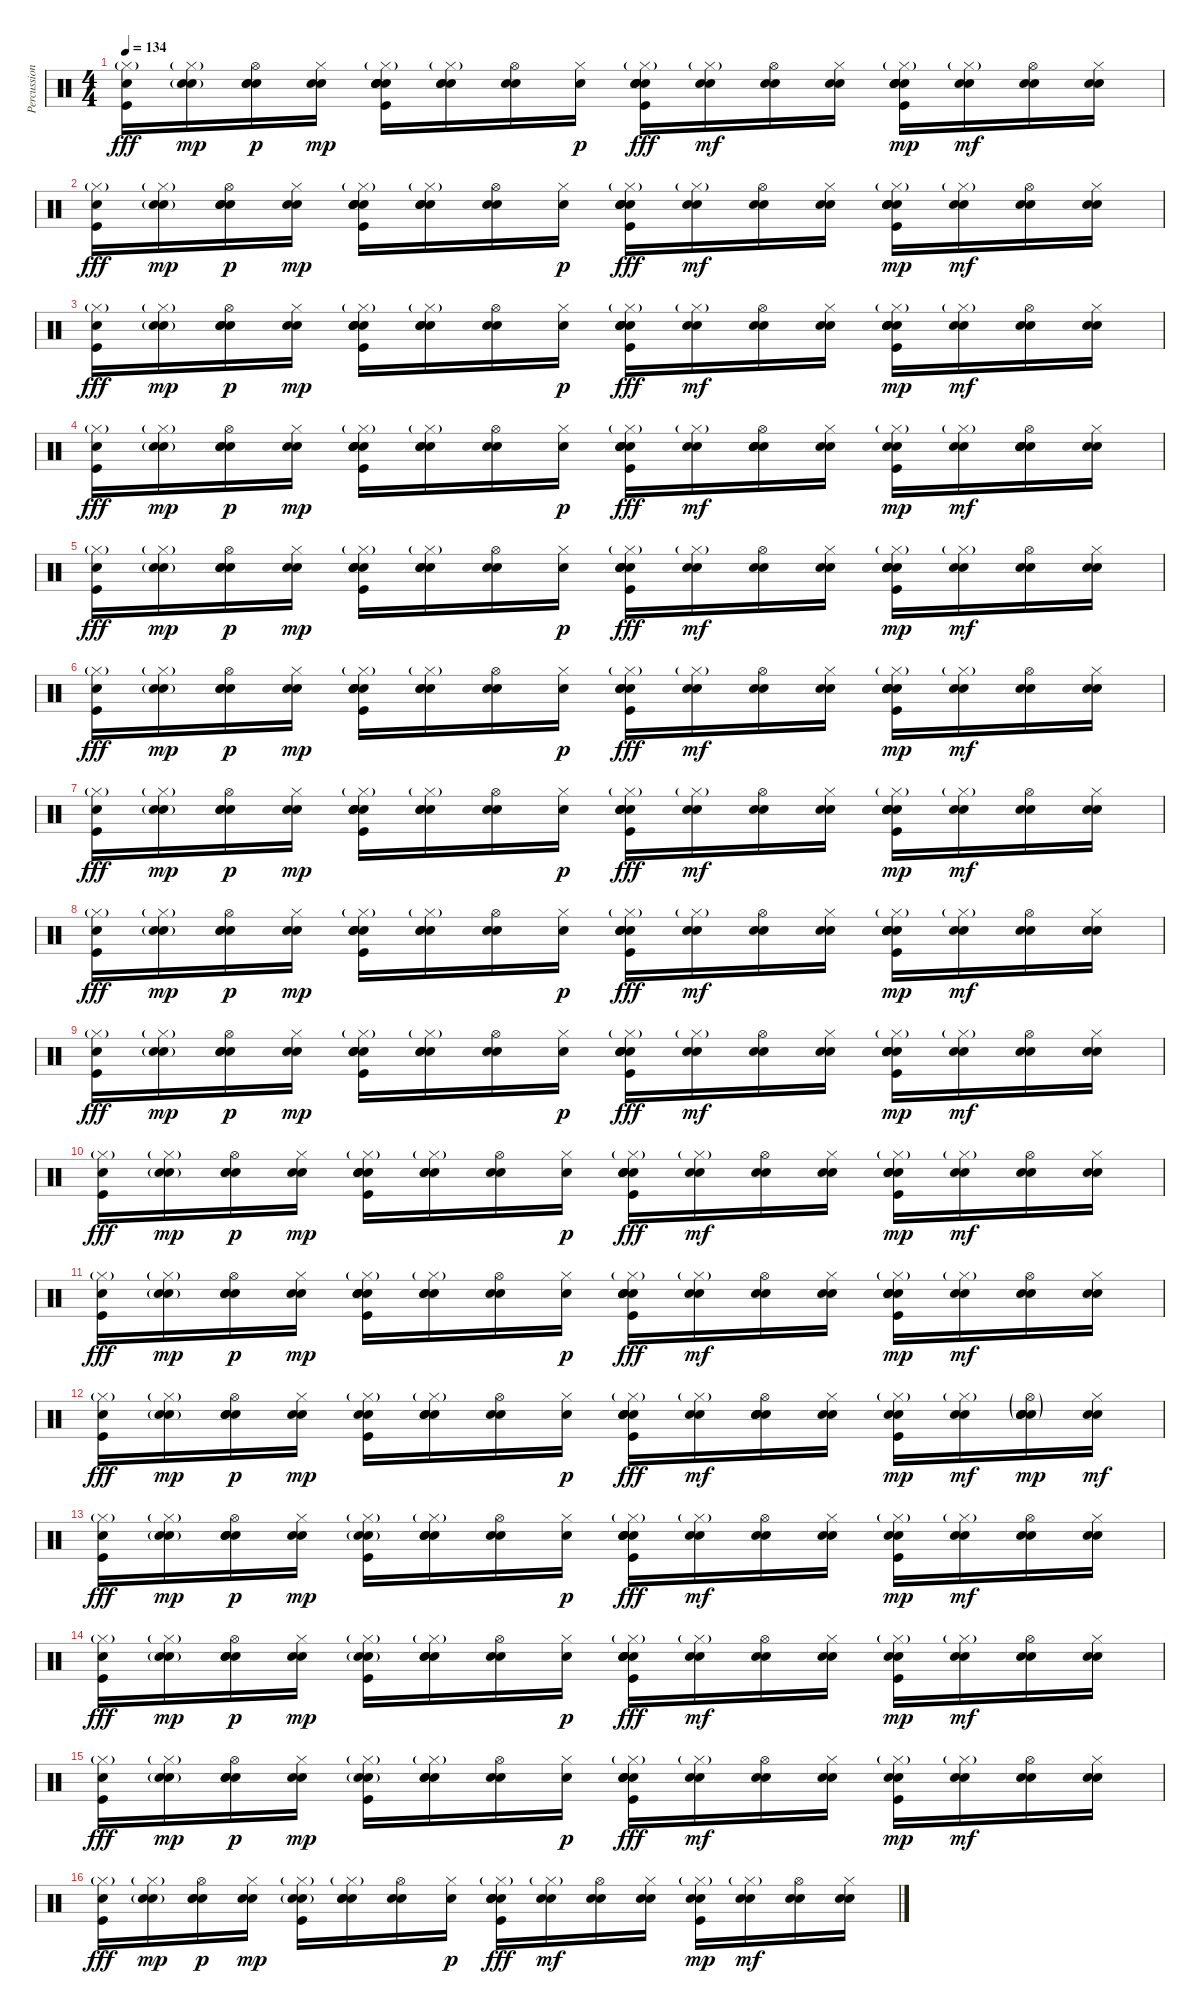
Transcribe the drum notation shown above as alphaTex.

\track ("Percussion" "Percussion") {instrument percussion}
\staff {score}
\articulation defaults
\ts (4 4)
\tempo 134
\clef neutral
\ks c
("Electric Snare (hit)" "Hi-Hat (closed)"{g} "Kick (hit)").16{dy fff} ("Electric Snare (hit)" "Hi-Hat (closed)"{g} "Electric Snare (hit)"{g}).16{dy mp} ("Electric Snare (hit)" "Hi-Hat (open)" "Electric Snare (hit)" "Snare (hit) 2").16{dy p} ("Electric Snare (hit)" "Hi-Hat (closed)" "Snare (hit) 2").16{dy mp} ("Electric Snare (hit)" "Hi-Hat (closed)"{g} "Hand Clap (hit)" "Hand Clap (hit)" "Hand Clap (hit)" "Kick (hit)").16 ("Electric Snare (hit)" "Hi-Hat (closed)"{g} "Electric Snare (hit)" "Snare (hit) 2").16 ("Electric Snare (hit)" "Hi-Hat (open)" "Snare (hit) 2").16 ("Electric Snare (hit)" "Hi-Hat (closed)").16{dy p} ("Electric Snare (hit)" "Hi-Hat (closed)"{g} "Snare (hit) 2" "Snare (hit) 2" "Snare (hit) 2" "Kick (hit)").16{dy fff} ("Electric Snare (hit)" "Hi-Hat (closed)"{g} "Snare (hit) 2").16{dy mf} ("Electric Snare (hit)" "Hi-Hat (open)" "Snare (hit) 2").16 ("Electric Snare (hit)" "Hi-Hat (closed)" "Snare (hit) 2").16 ("Electric Snare (hit)" "Hi-Hat (closed)"{g} "Hand Clap (hit)" "Hand Clap (hit)" "Hand Clap (hit)" "Kick (hit)").16{dy mp} ("Electric Snare (hit)" "Hi-Hat (closed)"{g} "Snare (hit) 2").16{dy mf} ("Electric Snare (hit)" "Hi-Hat (open)" "Snare (hit) 2").16 ("Electric Snare (hit)" "Hi-Hat (closed)" "Snare (hit) 2").16 |
("Electric Snare (hit)" "Hi-Hat (closed)"{g} "Kick (hit)").16{dy fff} ("Electric Snare (hit)" "Hi-Hat (closed)"{g} "Electric Snare (hit)"{g}).16{dy mp} ("Electric Snare (hit)" "Hi-Hat (open)" "Electric Snare (hit)" "Snare (hit) 2").16{dy p} ("Electric Snare (hit)" "Hi-Hat (closed)" "Snare (hit) 2").16{dy mp} ("Electric Snare (hit)" "Hi-Hat (closed)"{g} "Hand Clap (hit)" "Hand Clap (hit)" "Hand Clap (hit)" "Kick (hit)").16 ("Electric Snare (hit)" "Hi-Hat (closed)"{g} "Electric Snare (hit)" "Snare (hit) 2").16 ("Electric Snare (hit)" "Hi-Hat (open)" "Snare (hit) 2").16 ("Electric Snare (hit)" "Hi-Hat (closed)").16{dy p} ("Electric Snare (hit)" "Hi-Hat (closed)"{g} "Snare (hit) 2" "Snare (hit) 2" "Snare (hit) 2" "Kick (hit)").16{dy fff} ("Electric Snare (hit)" "Hi-Hat (closed)"{g} "Snare (hit) 2").16{dy mf} ("Electric Snare (hit)" "Hi-Hat (open)" "Snare (hit) 2").16 ("Electric Snare (hit)" "Hi-Hat (closed)" "Snare (hit) 2").16 ("Electric Snare (hit)" "Hi-Hat (closed)"{g} "Hand Clap (hit)" "Hand Clap (hit)" "Hand Clap (hit)" "Kick (hit)").16{dy mp} ("Electric Snare (hit)" "Hi-Hat (closed)"{g} "Snare (hit) 2").16{dy mf} ("Electric Snare (hit)" "Hi-Hat (open)" "Snare (hit) 2").16 ("Electric Snare (hit)" "Hi-Hat (closed)" "Snare (hit) 2").16 |
("Electric Snare (hit)" "Hi-Hat (closed)"{g} "Kick (hit)").16{dy fff} ("Electric Snare (hit)" "Hi-Hat (closed)"{g} "Electric Snare (hit)"{g}).16{dy mp} ("Electric Snare (hit)" "Hi-Hat (open)" "Electric Snare (hit)" "Snare (hit) 2").16{dy p} ("Electric Snare (hit)" "Hi-Hat (closed)" "Snare (hit) 2").16{dy mp} ("Electric Snare (hit)" "Hi-Hat (closed)"{g} "Hand Clap (hit)" "Hand Clap (hit)" "Hand Clap (hit)" "Kick (hit)").16 ("Electric Snare (hit)" "Hi-Hat (closed)"{g} "Electric Snare (hit)" "Snare (hit) 2").16 ("Electric Snare (hit)" "Hi-Hat (open)" "Snare (hit) 2").16 ("Electric Snare (hit)" "Hi-Hat (closed)").16{dy p} ("Electric Snare (hit)" "Hi-Hat (closed)"{g} "Snare (hit) 2" "Snare (hit) 2" "Snare (hit) 2" "Kick (hit)").16{dy fff} ("Electric Snare (hit)" "Hi-Hat (closed)"{g} "Snare (hit) 2").16{dy mf} ("Electric Snare (hit)" "Hi-Hat (open)" "Snare (hit) 2").16 ("Electric Snare (hit)" "Hi-Hat (closed)" "Snare (hit) 2").16 ("Electric Snare (hit)" "Hi-Hat (closed)"{g} "Hand Clap (hit)" "Hand Clap (hit)" "Hand Clap (hit)" "Kick (hit)").16{dy mp} ("Electric Snare (hit)" "Hi-Hat (closed)"{g} "Snare (hit) 2").16{dy mf} ("Electric Snare (hit)" "Hi-Hat (open)" "Snare (hit) 2").16 ("Electric Snare (hit)" "Hi-Hat (closed)" "Snare (hit) 2").16 |
("Electric Snare (hit)" "Hi-Hat (closed)"{g} "Kick (hit)").16{dy fff} ("Electric Snare (hit)" "Hi-Hat (closed)"{g} "Electric Snare (hit)"{g}).16{dy mp} ("Electric Snare (hit)" "Hi-Hat (open)" "Electric Snare (hit)" "Snare (hit) 2").16{dy p} ("Electric Snare (hit)" "Hi-Hat (closed)" "Snare (hit) 2").16{dy mp} ("Electric Snare (hit)" "Hi-Hat (closed)"{g} "Hand Clap (hit)" "Hand Clap (hit)" "Hand Clap (hit)" "Kick (hit)").16 ("Electric Snare (hit)" "Hi-Hat (closed)"{g} "Electric Snare (hit)" "Snare (hit) 2").16 ("Electric Snare (hit)" "Hi-Hat (open)" "Snare (hit) 2").16 ("Electric Snare (hit)" "Hi-Hat (closed)").16{dy p} ("Electric Snare (hit)" "Hi-Hat (closed)"{g} "Snare (hit) 2" "Snare (hit) 2" "Snare (hit) 2" "Kick (hit)").16{dy fff} ("Electric Snare (hit)" "Hi-Hat (closed)"{g} "Snare (hit) 2").16{dy mf} ("Electric Snare (hit)" "Hi-Hat (open)" "Hand Clap (hit)" "Hand Clap (hit)" "Hand Clap (hit)").16 ("Electric Snare (hit)" "Hi-Hat (closed)" "Snare (hit) 2").16 ("Electric Snare (hit)" "Hi-Hat (closed)"{g} "Snare (hit) 2" "Kick (hit)").16{dy mp} ("Electric Snare (hit)" "Hi-Hat (closed)"{g} "Snare (hit) 2").16{dy mf} ("Electric Snare (hit)" "Hi-Hat (open)" "Hand Clap (hit)" "Hand Clap (hit)" "Hand Clap (hit)").16 ("Electric Snare (hit)" "Hi-Hat (closed)" "Snare (hit) 2").16 |
("Electric Snare (hit)" "Hi-Hat (closed)"{g} "Kick (hit)").16{dy fff} ("Electric Snare (hit)" "Hi-Hat (closed)"{g} "Electric Snare (hit)"{g}).16{dy mp} ("Electric Snare (hit)" "Hi-Hat (open)" "Electric Snare (hit)" "Snare (hit) 2").16{dy p} ("Electric Snare (hit)" "Hi-Hat (closed)" "Snare (hit) 2").16{dy mp} ("Electric Snare (hit)" "Hi-Hat (closed)"{g} "Hand Clap (hit)" "Hand Clap (hit)" "Hand Clap (hit)" "Kick (hit)").16 ("Electric Snare (hit)" "Hi-Hat (closed)"{g} "Electric Snare (hit)" "Snare (hit) 2").16 ("Electric Snare (hit)" "Hi-Hat (open)" "Snare (hit) 2").16 ("Electric Snare (hit)" "Hi-Hat (closed)").16{dy p} ("Electric Snare (hit)" "Hi-Hat (closed)"{g} "Snare (hit) 2" "Snare (hit) 2" "Snare (hit) 2" "Kick (hit)").16{dy fff} ("Electric Snare (hit)" "Hi-Hat (closed)"{g} "Snare (hit) 2").16{dy mf} ("Electric Snare (hit)" "Hi-Hat (open)" "Snare (hit) 2").16 ("Electric Snare (hit)" "Hi-Hat (closed)" "Snare (hit) 2").16 ("Electric Snare (hit)" "Hi-Hat (closed)"{g} "Hand Clap (hit)" "Hand Clap (hit)" "Hand Clap (hit)" "Kick (hit)").16{dy mp} ("Electric Snare (hit)" "Hi-Hat (closed)"{g} "Snare (hit) 2").16{dy mf} ("Electric Snare (hit)" "Hi-Hat (open)" "Snare (hit) 2").16 ("Electric Snare (hit)" "Hi-Hat (closed)" "Snare (hit) 2").16 |
("Electric Snare (hit)" "Hi-Hat (closed)"{g} "Kick (hit)").16{dy fff} ("Electric Snare (hit)" "Hi-Hat (closed)"{g} "Electric Snare (hit)"{g}).16{dy mp} ("Electric Snare (hit)" "Hi-Hat (open)" "Electric Snare (hit)" "Snare (hit) 2").16{dy p} ("Electric Snare (hit)" "Hi-Hat (closed)" "Snare (hit) 2").16{dy mp} ("Electric Snare (hit)" "Hi-Hat (closed)"{g} "Hand Clap (hit)" "Hand Clap (hit)" "Hand Clap (hit)" "Kick (hit)").16 ("Electric Snare (hit)" "Hi-Hat (closed)"{g} "Electric Snare (hit)" "Snare (hit) 2").16 ("Electric Snare (hit)" "Hi-Hat (open)" "Snare (hit) 2").16 ("Electric Snare (hit)" "Hi-Hat (closed)").16{dy p} ("Electric Snare (hit)" "Hi-Hat (closed)"{g} "Snare (hit) 2" "Snare (hit) 2" "Snare (hit) 2" "Kick (hit)").16{dy fff} ("Electric Snare (hit)" "Hi-Hat (closed)"{g} "Snare (hit) 2").16{dy mf} ("Electric Snare (hit)" "Hi-Hat (open)" "Snare (hit) 2").16 ("Electric Snare (hit)" "Hi-Hat (closed)" "Snare (hit) 2").16 ("Electric Snare (hit)" "Hi-Hat (closed)"{g} "Hand Clap (hit)" "Hand Clap (hit)" "Hand Clap (hit)" "Kick (hit)").16{dy mp} ("Electric Snare (hit)" "Hi-Hat (closed)"{g} "Snare (hit) 2").16{dy mf} ("Electric Snare (hit)" "Hi-Hat (open)" "Snare (hit) 2").16 ("Electric Snare (hit)" "Hi-Hat (closed)" "Snare (hit) 2").16 |
("Electric Snare (hit)" "Hi-Hat (closed)"{g} "Kick (hit)").16{dy fff} ("Electric Snare (hit)" "Hi-Hat (closed)"{g} "Electric Snare (hit)"{g}).16{dy mp} ("Electric Snare (hit)" "Hi-Hat (open)" "Electric Snare (hit)" "Snare (hit) 2").16{dy p} ("Electric Snare (hit)" "Hi-Hat (closed)" "Snare (hit) 2").16{dy mp} ("Electric Snare (hit)" "Hi-Hat (closed)"{g} "Hand Clap (hit)" "Hand Clap (hit)" "Hand Clap (hit)" "Kick (hit)").16 ("Electric Snare (hit)" "Hi-Hat (closed)"{g} "Electric Snare (hit)" "Snare (hit) 2").16 ("Electric Snare (hit)" "Hi-Hat (open)" "Snare (hit) 2").16 ("Electric Snare (hit)" "Hi-Hat (closed)").16{dy p} ("Electric Snare (hit)" "Hi-Hat (closed)"{g} "Snare (hit) 2" "Snare (hit) 2" "Snare (hit) 2" "Kick (hit)").16{dy fff} ("Electric Snare (hit)" "Hi-Hat (closed)"{g} "Snare (hit) 2").16{dy mf} ("Electric Snare (hit)" "Hi-Hat (open)" "Snare (hit) 2").16 ("Electric Snare (hit)" "Hi-Hat (closed)" "Snare (hit) 2").16 ("Electric Snare (hit)" "Hi-Hat (closed)"{g} "Hand Clap (hit)" "Hand Clap (hit)" "Hand Clap (hit)" "Kick (hit)").16{dy mp} ("Electric Snare (hit)" "Hi-Hat (closed)"{g} "Snare (hit) 2").16{dy mf} ("Electric Snare (hit)" "Hi-Hat (open)" "Snare (hit) 2").16 ("Electric Snare (hit)" "Hi-Hat (closed)" "Snare (hit) 2").16 |
("Electric Snare (hit)" "Hi-Hat (closed)"{g} "Kick (hit)").16{dy fff} ("Electric Snare (hit)" "Hi-Hat (closed)"{g} "Electric Snare (hit)"{g}).16{dy mp} ("Electric Snare (hit)" "Hi-Hat (open)" "Electric Snare (hit)" "Snare (hit) 2").16{dy p} ("Electric Snare (hit)" "Hi-Hat (closed)" "Snare (hit) 2").16{dy mp} ("Electric Snare (hit)" "Hi-Hat (closed)"{g} "Hand Clap (hit)" "Hand Clap (hit)" "Hand Clap (hit)" "Kick (hit)").16 ("Electric Snare (hit)" "Hi-Hat (closed)"{g} "Electric Snare (hit)" "Snare (hit) 2").16 ("Electric Snare (hit)" "Hi-Hat (open)" "Snare (hit) 2").16 ("Electric Snare (hit)" "Hi-Hat (closed)").16{dy p} ("Electric Snare (hit)" "Hi-Hat (closed)"{g} "Snare (hit) 2" "Snare (hit) 2" "Snare (hit) 2" "Kick (hit)").16{dy fff} ("Electric Snare (hit)" "Hi-Hat (closed)"{g} "Snare (hit) 2").16{dy mf} ("Electric Snare (hit)" "Hi-Hat (open)" "Snare (hit) 2").16 ("Electric Snare (hit)" "Hi-Hat (closed)" "Snare (hit) 2").16 ("Electric Snare (hit)" "Hi-Hat (closed)"{g} "Hand Clap (hit)" "Hand Clap (hit)" "Hand Clap (hit)" "Kick (hit)").16{dy mp} ("Electric Snare (hit)" "Hi-Hat (closed)"{g} "Snare (hit) 2").16{dy mf} ("Electric Snare (hit)" "Hi-Hat (open)" "Snare (hit) 2").16 ("Electric Snare (hit)" "Hi-Hat (closed)" "Snare (hit) 2").16 |
("Electric Snare (hit)" "Hi-Hat (closed)"{g} "Kick (hit)").16{dy fff} ("Electric Snare (hit)" "Hi-Hat (closed)"{g} "Electric Snare (hit)"{g}).16{dy mp} ("Electric Snare (hit)" "Hi-Hat (open)" "Electric Snare (hit)" "Snare (hit) 2").16{dy p} ("Electric Snare (hit)" "Hi-Hat (closed)" "Snare (hit) 2").16{dy mp} ("Electric Snare (hit)" "Hi-Hat (closed)"{g} "Hand Clap (hit)" "Hand Clap (hit)" "Hand Clap (hit)" "Kick (hit)").16 ("Electric Snare (hit)" "Hi-Hat (closed)"{g} "Electric Snare (hit)" "Snare (hit) 2").16 ("Electric Snare (hit)" "Hi-Hat (open)" "Snare (hit) 2").16 ("Electric Snare (hit)" "Hi-Hat (closed)").16{dy p} ("Electric Snare (hit)" "Hi-Hat (closed)"{g} "Snare (hit) 2" "Snare (hit) 2" "Snare (hit) 2" "Kick (hit)").16{dy fff} ("Electric Snare (hit)" "Hi-Hat (closed)"{g} "Snare (hit) 2").16{dy mf} ("Electric Snare (hit)" "Hi-Hat (open)" "Snare (hit) 2").16 ("Electric Snare (hit)" "Hi-Hat (closed)" "Snare (hit) 2").16 ("Electric Snare (hit)" "Hi-Hat (closed)"{g} "Hand Clap (hit)" "Hand Clap (hit)" "Hand Clap (hit)" "Kick (hit)").16{dy mp} ("Electric Snare (hit)" "Hi-Hat (closed)"{g} "Snare (hit) 2").16{dy mf} ("Electric Snare (hit)" "Hi-Hat (open)" "Snare (hit) 2").16 ("Electric Snare (hit)" "Hi-Hat (closed)" "Snare (hit) 2").16 |
("Electric Snare (hit)" "Hi-Hat (closed)"{g} "Kick (hit)").16{dy fff} ("Electric Snare (hit)" "Hi-Hat (closed)"{g} "Electric Snare (hit)"{g}).16{dy mp} ("Electric Snare (hit)" "Hi-Hat (open)" "Electric Snare (hit)" "Snare (hit) 2").16{dy p} ("Electric Snare (hit)" "Hi-Hat (closed)" "Snare (hit) 2").16{dy mp} ("Electric Snare (hit)" "Hi-Hat (closed)"{g} "Hand Clap (hit)" "Hand Clap (hit)" "Hand Clap (hit)" "Kick (hit)").16 ("Electric Snare (hit)" "Hi-Hat (closed)"{g} "Electric Snare (hit)" "Snare (hit) 2").16 ("Electric Snare (hit)" "Hi-Hat (open)" "Snare (hit) 2").16 ("Electric Snare (hit)" "Hi-Hat (closed)").16{dy p} ("Electric Snare (hit)" "Hi-Hat (closed)"{g} "Snare (hit) 2" "Snare (hit) 2" "Snare (hit) 2" "Kick (hit)").16{dy fff} ("Electric Snare (hit)" "Hi-Hat (closed)"{g} "Snare (hit) 2").16{dy mf} ("Electric Snare (hit)" "Hi-Hat (open)" "Snare (hit) 2").16 ("Electric Snare (hit)" "Hi-Hat (closed)" "Snare (hit) 2").16 ("Electric Snare (hit)" "Hi-Hat (closed)"{g} "Hand Clap (hit)" "Hand Clap (hit)" "Hand Clap (hit)" "Kick (hit)").16{dy mp} ("Electric Snare (hit)" "Hi-Hat (closed)"{g} "Snare (hit) 2").16{dy mf} ("Electric Snare (hit)" "Hi-Hat (open)" "Snare (hit) 2").16 ("Electric Snare (hit)" "Hi-Hat (closed)" "Snare (hit) 2").16 |
("Electric Snare (hit)" "Hi-Hat (closed)"{g} "Kick (hit)").16{dy fff} ("Electric Snare (hit)" "Hi-Hat (closed)"{g} "Electric Snare (hit)"{g}).16{dy mp} ("Electric Snare (hit)" "Hi-Hat (open)" "Electric Snare (hit)" "Snare (hit) 2").16{dy p} ("Electric Snare (hit)" "Hi-Hat (closed)" "Snare (hit) 2").16{dy mp} ("Electric Snare (hit)" "Hi-Hat (closed)"{g} "Hand Clap (hit)" "Hand Clap (hit)" "Hand Clap (hit)" "Kick (hit)").16 ("Electric Snare (hit)" "Hi-Hat (closed)"{g} "Electric Snare (hit)" "Snare (hit) 2").16 ("Electric Snare (hit)" "Hi-Hat (open)" "Snare (hit) 2").16 ("Electric Snare (hit)" "Hi-Hat (closed)").16{dy p} ("Electric Snare (hit)" "Hi-Hat (closed)"{g} "Snare (hit) 2" "Snare (hit) 2" "Snare (hit) 2" "Kick (hit)").16{dy fff} ("Electric Snare (hit)" "Hi-Hat (closed)"{g} "Snare (hit) 2").16{dy mf} ("Electric Snare (hit)" "Hi-Hat (open)" "Snare (hit) 2").16 ("Electric Snare (hit)" "Hi-Hat (closed)" "Snare (hit) 2").16 ("Electric Snare (hit)" "Hi-Hat (closed)"{g} "Hand Clap (hit)" "Hand Clap (hit)" "Hand Clap (hit)" "Kick (hit)").16{dy mp} ("Electric Snare (hit)" "Hi-Hat (closed)"{g} "Snare (hit) 2").16{dy mf} ("Electric Snare (hit)" "Hi-Hat (open)" "Snare (hit) 2").16 ("Electric Snare (hit)" "Hi-Hat (closed)" "Snare (hit) 2").16 |
("Electric Snare (hit)" "Hi-Hat (closed)"{g} "Kick (hit)").16{dy fff} ("Electric Snare (hit)" "Hi-Hat (closed)"{g} "Electric Snare (hit)"{g}).16{dy mp} ("Electric Snare (hit)" "Hi-Hat (open)" "Electric Snare (hit)" "Snare (hit) 2").16{dy p} ("Electric Snare (hit)" "Hi-Hat (closed)" "Snare (hit) 2").16{dy mp} ("Electric Snare (hit)" "Hi-Hat (closed)"{g} "Hand Clap (hit)" "Kick (hit)").16 ("Electric Snare (hit)" "Hi-Hat (closed)"{g} "Electric Snare (hit)" "Snare (hit) 2").16 ("Electric Snare (hit)" "Hi-Hat (open)" "Snare (hit) 2").16 ("Electric Snare (hit)" "Hi-Hat (closed)").16{dy p} ("Electric Snare (hit)" "Hi-Hat (closed)"{g} "Snare (hit) 2" "Snare (hit) 2" "Snare (hit) 2" "Kick (hit)").16{dy fff} ("Electric Snare (hit)" "Hi-Hat (closed)"{g} "Snare (hit) 2").16{dy mf} ("Electric Snare (hit)" "Hi-Hat (open)" "Snare (hit) 2" "Snare (hit) 2" "Hand Clap (hit)").16 ("Electric Snare (hit)" "Hi-Hat (closed)" "Snare (hit) 2").16 ("Electric Snare (hit)" "Hi-Hat (closed)"{g} "Snare (hit) 2" "Kick (hit)").16{dy mp} ("Electric Snare (hit)" "Hi-Hat (closed)"{g} "Snare (hit) 2").16{dy mf} ("Electric Snare (hit)"{g} "Hi-Hat (open)"{g} "Snare (hit) 2"{g} "Snare (hit) 2"{g} "Hand Clap (hit)"{g}).16{dy mp} ("Electric Snare (hit)" "Hi-Hat (closed)" "Snare (hit) 2").16{dy mf} |
("Electric Snare (hit)" "Hi-Hat (closed)"{g} "Kick (hit)").16{dy fff} ("Electric Snare (hit)" "Hi-Hat (closed)"{g} "Electric Snare (hit)"{g}).16{dy mp} ("Electric Snare (hit)" "Hi-Hat (open)" "Electric Snare (hit)" "Snare (hit) 2").16{dy p} ("Electric Snare (hit)" "Hi-Hat (closed)" "Snare (hit) 2").16{dy mp} ("Electric Snare (hit)" "Hi-Hat (closed)"{g} "Electric Snare (hit)"{g} "Kick (hit)").16 ("Electric Snare (hit)" "Hi-Hat (closed)"{g} "Electric Snare (hit)" "Snare (hit) 2").16 ("Electric Snare (hit)" "Hi-Hat (open)" "Snare (hit) 2").16 ("Electric Snare (hit)" "Hi-Hat (closed)").16{dy p} ("Electric Snare (hit)" "Hi-Hat (closed)"{g} "Snare (hit) 2" "Snare (hit) 2" "Snare (hit) 2" "Kick (hit)").16{dy fff} ("Electric Snare (hit)" "Hi-Hat (closed)"{g} "Snare (hit) 2").16{dy mf} ("Electric Snare (hit)" "Hi-Hat (open)" "Snare (hit) 2").16 ("Electric Snare (hit)" "Hi-Hat (closed)" "Snare (hit) 2").16 ("Electric Snare (hit)" "Hi-Hat (closed)"{g} "Snare (hit) 2" "Kick (hit)").16{dy mp} ("Electric Snare (hit)" "Hi-Hat (closed)"{g} "Snare (hit) 2").16{dy mf} ("Electric Snare (hit)" "Hi-Hat (open)" "Snare (hit) 2").16 ("Electric Snare (hit)" "Hi-Hat (closed)" "Snare (hit) 2").16 |
("Electric Snare (hit)" "Hi-Hat (closed)"{g} "Kick (hit)").16{dy fff} ("Electric Snare (hit)" "Hi-Hat (closed)"{g} "Electric Snare (hit)"{g}).16{dy mp} ("Electric Snare (hit)" "Hi-Hat (open)" "Electric Snare (hit)" "Snare (hit) 2").16{dy p} ("Electric Snare (hit)" "Hi-Hat (closed)" "Snare (hit) 2").16{dy mp} ("Electric Snare (hit)" "Hi-Hat (closed)"{g} "Electric Snare (hit)"{g} "Kick (hit)").16 ("Electric Snare (hit)" "Hi-Hat (closed)"{g} "Electric Snare (hit)" "Snare (hit) 2").16 ("Electric Snare (hit)" "Hi-Hat (open)" "Snare (hit) 2").16 ("Electric Snare (hit)" "Hi-Hat (closed)").16{dy p} ("Electric Snare (hit)" "Hi-Hat (closed)"{g} "Snare (hit) 2" "Snare (hit) 2" "Snare (hit) 2" "Kick (hit)").16{dy fff} ("Electric Snare (hit)" "Hi-Hat (closed)"{g} "Snare (hit) 2").16{dy mf} ("Electric Snare (hit)" "Hi-Hat (open)" "Snare (hit) 2").16 ("Electric Snare (hit)" "Hi-Hat (closed)" "Snare (hit) 2").16 ("Electric Snare (hit)" "Hi-Hat (closed)"{g} "Snare (hit) 2" "Kick (hit)").16{dy mp} ("Electric Snare (hit)" "Hi-Hat (closed)"{g} "Snare (hit) 2").16{dy mf} ("Electric Snare (hit)" "Hi-Hat (open)" "Snare (hit) 2").16 ("Electric Snare (hit)" "Hi-Hat (closed)" "Snare (hit) 2").16 |
("Electric Snare (hit)" "Hi-Hat (closed)"{g} "Kick (hit)").16{dy fff} ("Electric Snare (hit)" "Hi-Hat (closed)"{g} "Electric Snare (hit)"{g}).16{dy mp} ("Electric Snare (hit)" "Hi-Hat (open)" "Electric Snare (hit)" "Snare (hit) 2").16{dy p} ("Electric Snare (hit)" "Hi-Hat (closed)" "Snare (hit) 2").16{dy mp} ("Electric Snare (hit)" "Hi-Hat (closed)"{g} "Electric Snare (hit)"{g} "Kick (hit)").16 ("Electric Snare (hit)" "Hi-Hat (closed)"{g} "Electric Snare (hit)" "Snare (hit) 2").16 ("Electric Snare (hit)" "Hi-Hat (open)" "Snare (hit) 2").16 ("Electric Snare (hit)" "Hi-Hat (closed)").16{dy p} ("Electric Snare (hit)" "Hi-Hat (closed)"{g} "Snare (hit) 2" "Snare (hit) 2" "Snare (hit) 2" "Kick (hit)").16{dy fff} ("Electric Snare (hit)" "Hi-Hat (closed)"{g} "Snare (hit) 2").16{dy mf} ("Electric Snare (hit)" "Hi-Hat (open)" "Snare (hit) 2").16 ("Electric Snare (hit)" "Hi-Hat (closed)" "Snare (hit) 2").16 ("Electric Snare (hit)" "Hi-Hat (closed)"{g} "Snare (hit) 2" "Kick (hit)").16{dy mp} ("Electric Snare (hit)" "Hi-Hat (closed)"{g} "Snare (hit) 2").16{dy mf} ("Electric Snare (hit)" "Hi-Hat (open)" "Snare (hit) 2").16 ("Electric Snare (hit)" "Hi-Hat (closed)" "Snare (hit) 2").16 |
("Electric Snare (hit)" "Hi-Hat (closed)"{g} "Kick (hit)").16{dy fff} ("Electric Snare (hit)" "Hi-Hat (closed)"{g} "Electric Snare (hit)"{g}).16{dy mp} ("Electric Snare (hit)" "Hi-Hat (open)" "Electric Snare (hit)" "Snare (hit) 2").16{dy p} ("Electric Snare (hit)" "Hi-Hat (closed)" "Snare (hit) 2").16{dy mp} ("Electric Snare (hit)" "Hi-Hat (closed)"{g} "Electric Snare (hit)"{g} "Kick (hit)").16 ("Electric Snare (hit)" "Hi-Hat (closed)"{g} "Electric Snare (hit)" "Snare (hit) 2").16 ("Electric Snare (hit)" "Hi-Hat (open)" "Snare (hit) 2").16 ("Electric Snare (hit)" "Hi-Hat (closed)").16{dy p} ("Electric Snare (hit)" "Hi-Hat (closed)"{g} "Snare (hit) 2" "Snare (hit) 2" "Snare (hit) 2" "Kick (hit)").16{dy fff} ("Electric Snare (hit)" "Hi-Hat (closed)"{g} "Snare (hit) 2").16{dy mf} ("Electric Snare (hit)" "Hi-Hat (open)" "Snare (hit) 2").16 ("Electric Snare (hit)" "Hi-Hat (closed)" "Snare (hit) 2").16 ("Electric Snare (hit)" "Hi-Hat (closed)"{g} "Snare (hit) 2" "Kick (hit)").16{dy mp} ("Electric Snare (hit)" "Hi-Hat (closed)"{g} "Snare (hit) 2").16{dy mf} ("Electric Snare (hit)" "Hi-Hat (open)" "Snare (hit) 2").16 ("Electric Snare (hit)" "Hi-Hat (closed)" "Snare (hit) 2").16
